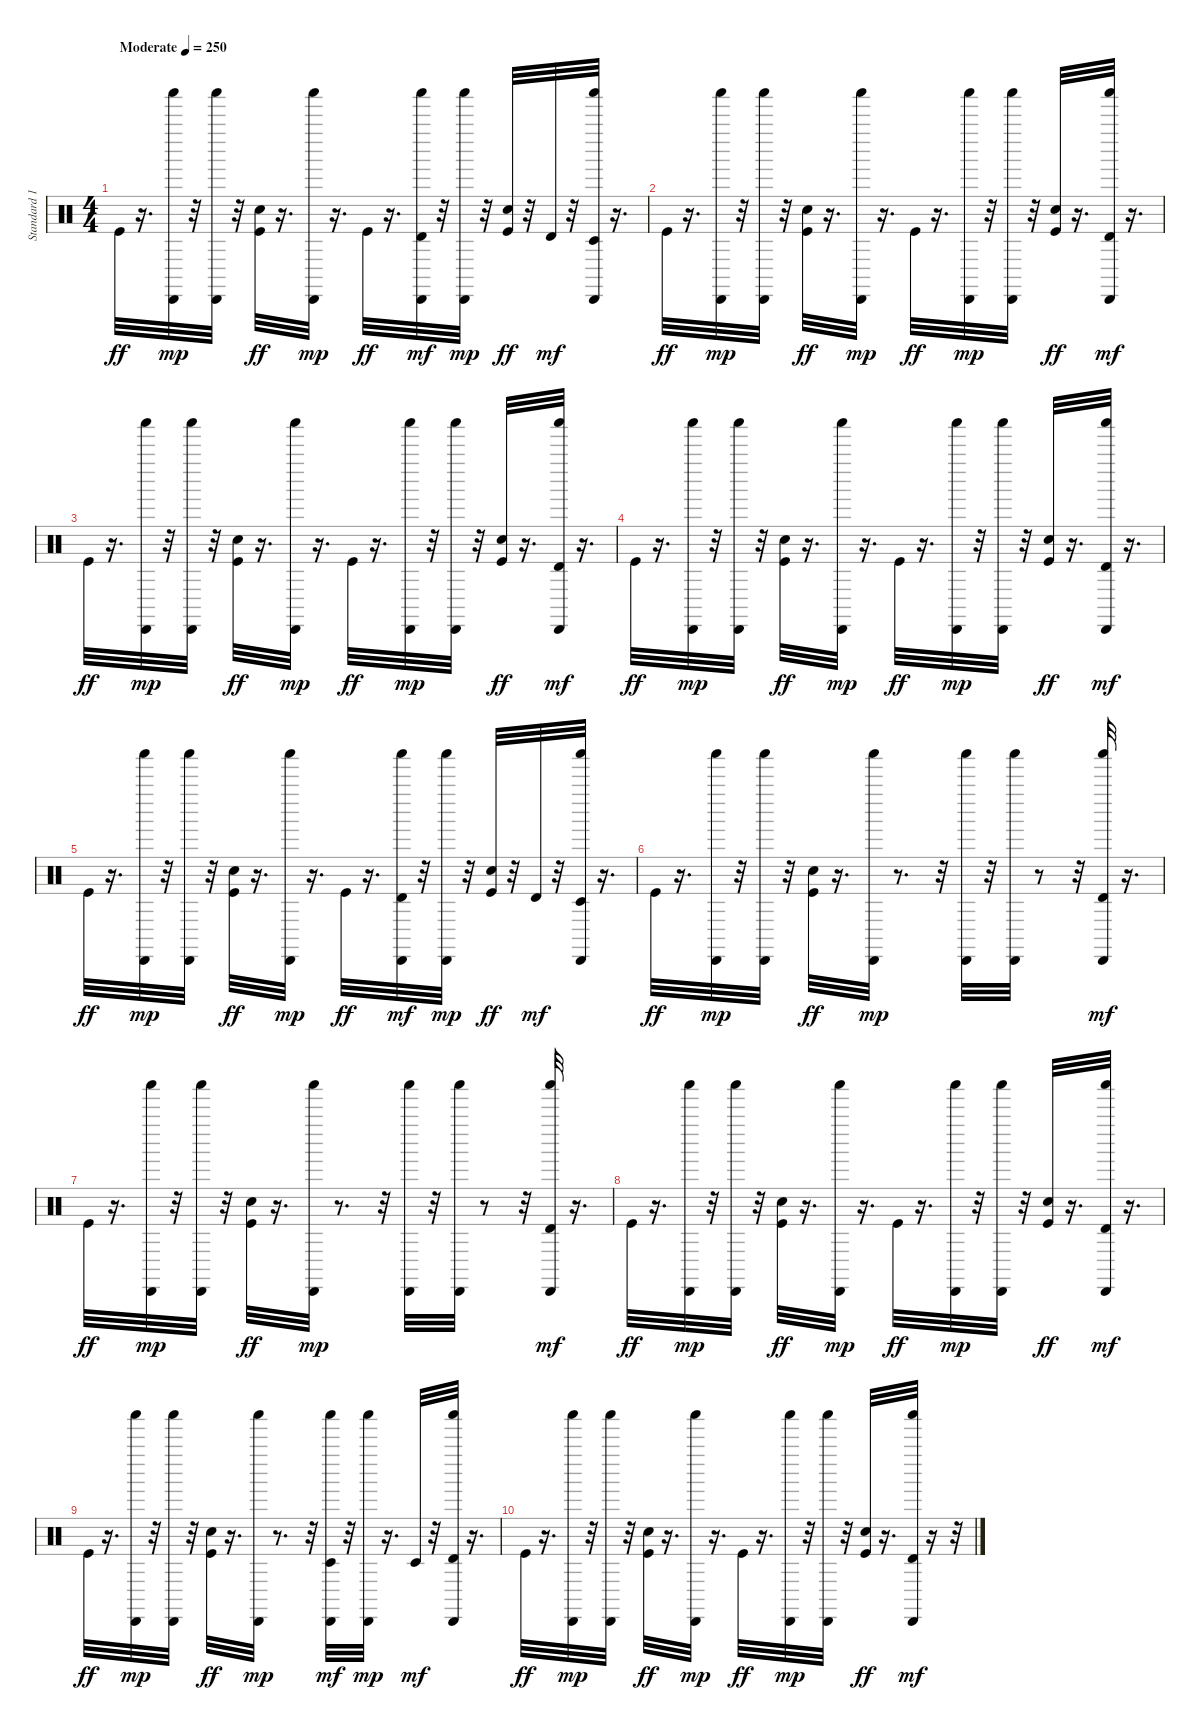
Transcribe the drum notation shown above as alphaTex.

\track ("Standard 1          " "Standard 1") {instrument percussion}
\staff {score}
\articulation defaults
\ts (4 4)
\tempo (250 "Moderate")
\tempo 96
\tempo (250 "Moderate")
\clef neutral
\ks c "Kick (hit)".32{dy ff}
r.16{d} ("Cabasa (hit)" "Shaker (hit)").32{dy mp} r.32 ("Shaker (hit)" "Cabasa (hit)").32 r.32 ("Snare (hit) 2" "Kick (hit)").32{dy ff} r.16{d} ("Cabasa (hit)" "Shaker (hit)").32{dy mp} r.16{d} "Kick (hit)".32{dy ff} r.16{d} ("Cabasa (hit)" "Shaker (hit)" "Timbale high (hit)").32{dy mf} r.32 ("Shaker (hit)" "Cabasa (hit)").32{dy mp} r.32 ("Snare (hit) 2" "Kick (hit)").32{dy ff} r.32 "Timbale high (hit)".32{dy mf} r.32 ("Cabasa (hit)" "Shaker (hit)" "Timbale low (hit)").32 r.16{d} |
"Kick (hit)".32{dy ff} r.16{d} ("Cabasa (hit)" "Shaker (hit)").32{dy mp} r.32 ("Shaker (hit)" "Cabasa (hit)").32 r.32 ("Snare (hit) 2" "Kick (hit)").32{dy ff} r.16{d} ("Cabasa (hit)" "Shaker (hit)").32{dy mp} r.16{d} "Kick (hit)".32{dy ff} r.16{d} ("Cabasa (hit)" "Shaker (hit)").32{dy mp} r.32 ("Shaker (hit)" "Cabasa (hit)").32 r.32 ("Snare (hit) 2" "Kick (hit)").32{dy ff} r.16{d} ("Cabasa (hit)" "Shaker (hit)" "Timbale high (hit)").32{dy mf} r.16{d} |
"Kick (hit)".32{dy ff} r.16{d} ("Cabasa (hit)" "Shaker (hit)").32{dy mp} r.32 ("Shaker (hit)" "Cabasa (hit)").32 r.32 ("Snare (hit) 2" "Kick (hit)").32{dy ff} r.16{d} ("Cabasa (hit)" "Shaker (hit)").32{dy mp} r.16{d} "Kick (hit)".32{dy ff} r.16{d} ("Cabasa (hit)" "Shaker (hit)").32{dy mp} r.32 ("Shaker (hit)" "Cabasa (hit)").32 r.32 ("Snare (hit) 2" "Kick (hit)").32{dy ff} r.16{d} ("Cabasa (hit)" "Shaker (hit)" "Timbale high (hit)").32{dy mf} r.16{d} |
"Kick (hit)".32{dy ff} r.16{d} ("Cabasa (hit)" "Shaker (hit)").32{dy mp} r.32 ("Shaker (hit)" "Cabasa (hit)").32 r.32 ("Snare (hit) 2" "Kick (hit)").32{dy ff} r.16{d} ("Cabasa (hit)" "Shaker (hit)").32{dy mp} r.16{d} "Kick (hit)".32{dy ff} r.16{d} ("Cabasa (hit)" "Shaker (hit)").32{dy mp} r.32 ("Shaker (hit)" "Cabasa (hit)").32 r.32 ("Snare (hit) 2" "Kick (hit)").32{dy ff} r.16{d} ("Cabasa (hit)" "Shaker (hit)" "Timbale high (hit)").32{dy mf} r.16{d} |
"Kick (hit)".32{dy ff} r.16{d} ("Cabasa (hit)" "Shaker (hit)").32{dy mp} r.32 ("Shaker (hit)" "Cabasa (hit)").32 r.32 ("Snare (hit) 2" "Kick (hit)").32{dy ff} r.16{d} ("Cabasa (hit)" "Shaker (hit)").32{dy mp} r.16{d} "Kick (hit)".32{dy ff} r.16{d} ("Cabasa (hit)" "Shaker (hit)" "Timbale high (hit)").32{dy mf} r.32 ("Shaker (hit)" "Cabasa (hit)").32{dy mp} r.32 ("Snare (hit) 2" "Kick (hit)").32{dy ff} r.32 "Timbale high (hit)".32{dy mf} r.32 ("Cabasa (hit)" "Shaker (hit)" "Timbale low (hit)").32 r.16{d} |
"Kick (hit)".32{dy ff} r.16{d} ("Cabasa (hit)" "Shaker (hit)").32{dy mp} r.32 ("Shaker (hit)" "Cabasa (hit)").32 r.32 ("Snare (hit) 2" "Kick (hit)").32{dy ff} r.16{d} ("Cabasa (hit)" "Shaker (hit)").32{dy mp} r.8{d} r.32 ("Cabasa (hit)" "Shaker (hit)").32 r.32 ("Shaker (hit)" "Cabasa (hit)").32 r.8 r.32 ("Cabasa (hit)" "Shaker (hit)" "Timbale high (hit)").32{dy mf} r.16{d} |
"Kick (hit)".32{dy ff} r.16{d} ("Cabasa (hit)" "Shaker (hit)").32{dy mp} r.32 ("Shaker (hit)" "Cabasa (hit)").32 r.32 ("Snare (hit) 2" "Kick (hit)").32{dy ff} r.16{d} ("Cabasa (hit)" "Shaker (hit)").32{dy mp} r.8{d} r.32 ("Cabasa (hit)" "Shaker (hit)").32 r.32 ("Shaker (hit)" "Cabasa (hit)").32 r.8 r.32 ("Cabasa (hit)" "Shaker (hit)" "Timbale high (hit)").32{dy mf} r.16{d} |
"Kick (hit)".32{dy ff} r.16{d} ("Cabasa (hit)" "Shaker (hit)").32{dy mp} r.32 ("Shaker (hit)" "Cabasa (hit)").32 r.32 ("Snare (hit) 2" "Kick (hit)").32{dy ff} r.16{d} ("Cabasa (hit)" "Shaker (hit)").32{dy mp} r.16{d} "Kick (hit)".32{dy ff} r.16{d} ("Cabasa (hit)" "Shaker (hit)").32{dy mp} r.32 ("Shaker (hit)" "Cabasa (hit)").32 r.32 ("Snare (hit) 2" "Kick (hit)").32{dy ff} r.16{d} ("Cabasa (hit)" "Shaker (hit)" "Timbale high (hit)").32{dy mf} r.16{d} |
"Kick (hit)".32{dy ff} r.16{d} ("Cabasa (hit)" "Shaker (hit)").32{dy mp} r.32 ("Shaker (hit)" "Cabasa (hit)").32 r.32 ("Snare (hit) 2" "Kick (hit)").32{dy ff} r.16{d} ("Cabasa (hit)" "Shaker (hit)").32{dy mp} r.8{d} r.32 ("Cabasa (hit)" "Shaker (hit)" "Timbale low (hit)").32{dy mf} r.32 ("Shaker (hit)" "Cabasa (hit)").32{dy mp} r.16{d} "Timbale low (hit)".32{dy mf} r.32 ("Cabasa (hit)" "Shaker (hit)" "Timbale high (hit)").32 r.16{d} |
"Kick (hit)".32{dy ff} r.16{d} ("Cabasa (hit)" "Shaker (hit)").32{dy mp} r.32 ("Shaker (hit)" "Cabasa (hit)").32 r.32 ("Snare (hit) 2" "Kick (hit)").32{dy ff} r.16{d} ("Cabasa (hit)" "Shaker (hit)").32{dy mp} r.16{d} "Kick (hit)".32{dy ff} r.16{d} ("Cabasa (hit)" "Shaker (hit)").32{dy mp} r.32 ("Shaker (hit)" "Cabasa (hit)").32 r.32 ("Snare (hit) 2" "Kick (hit)").32{dy ff} r.16{d} ("Cabasa (hit)" "Shaker (hit)" "Timbale high (hit)").32{dy mf} r.16 r.32
